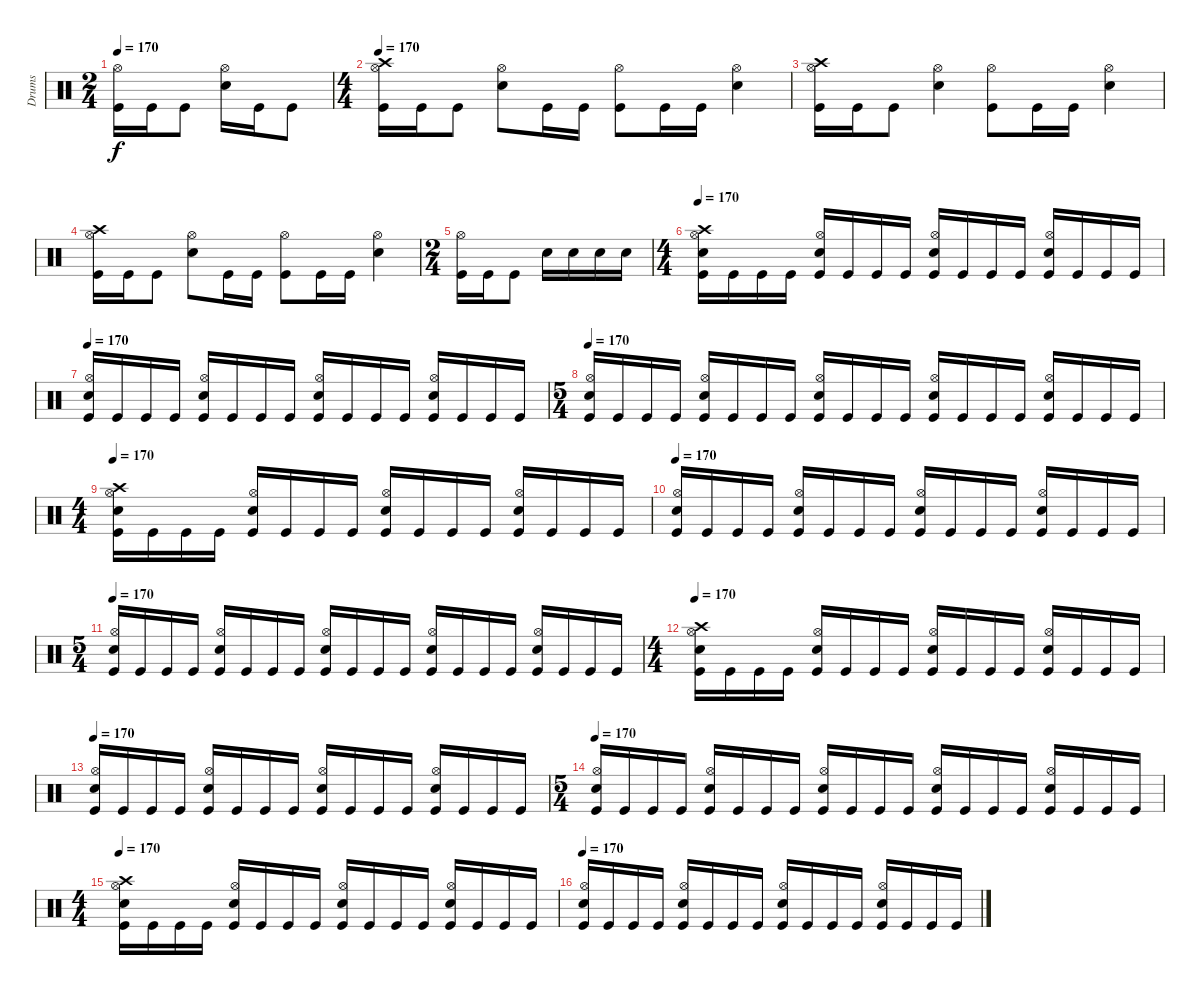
\track ("Drums" "Drums") {instrument percussion}
\staff {score}
\articulation defaults
\ts (2 4)
\tempo 170
\clef neutral
\ks c
("Kick (hit)" "Hi-Hat (open)").16{dy f} "Kick (hit)".16 "Kick (hit)".8 ("Snare (hit) 2" "Hi-Hat (open)").16 "Kick (hit)".16 "Kick (hit)".8 |
\ts (4 4)
\tempo 170
("Kick (hit)" "Hi-Hat (open)" "Crash high (hit)").16 "Kick (hit)".16 "Kick (hit)".8 ("Snare (hit) 2" "Hi-Hat (open)").8 "Kick (hit)".16 "Kick (hit)".16 ("Kick (hit)" "Hi-Hat (open)").8 "Kick (hit)".16 "Kick (hit)".16 ("Snare (hit) 2" "Hi-Hat (open)").4 |
("Kick (hit)" "Hi-Hat (open)" "Crash high (hit)").16 "Kick (hit)".16 "Kick (hit)".8 ("Snare (hit) 2" "Hi-Hat (open)").4 ("Kick (hit)" "Hi-Hat (open)").8 "Kick (hit)".16 "Kick (hit)".16 ("Snare (hit) 2" "Hi-Hat (open)").4 |
("Kick (hit)" "Hi-Hat (open)" "Crash high (hit)").16 "Kick (hit)".16 "Kick (hit)".8 ("Snare (hit) 2" "Hi-Hat (open)").8 "Kick (hit)".16 "Kick (hit)".16 ("Kick (hit)" "Hi-Hat (open)").8 "Kick (hit)".16 "Kick (hit)".16 ("Snare (hit) 2" "Hi-Hat (open)").4 |
\ts (2 4)
("Kick (hit)" "Hi-Hat (open)").16 "Kick (hit)".16 "Kick (hit)".8 "Snare (hit) 2".16 "Snare (hit) 2".16 "Snare (hit) 2".16 "Snare (hit) 2".16 |
\ts (4 4)
\tempo 170
("Kick (hit)" "Snare (hit) 2" "Hi-Hat (open)" "Crash high (hit)").16 "Kick (hit)".16 "Kick (hit)".16 "Kick (hit)".16 ("Kick (hit)" "Snare (hit) 2" "Hi-Hat (open)").16 "Kick (hit)".16 "Kick (hit)".16 "Kick (hit)".16 ("Kick (hit)" "Snare (hit) 2" "Hi-Hat (open)").16 "Kick (hit)".16 "Kick (hit)".16 "Kick (hit)".16 ("Kick (hit)" "Snare (hit) 2" "Hi-Hat (open)").16 "Kick (hit)".16 "Kick (hit)".16 "Kick (hit)".16 |
\tempo 170
("Kick (hit)" "Snare (hit) 2" "Hi-Hat (open)").16 "Kick (hit)".16 "Kick (hit)".16 "Kick (hit)".16 ("Kick (hit)" "Snare (hit) 2" "Hi-Hat (open)").16 "Kick (hit)".16 "Kick (hit)".16 "Kick (hit)".16 ("Kick (hit)" "Snare (hit) 2" "Hi-Hat (open)").16 "Kick (hit)".16 "Kick (hit)".16 "Kick (hit)".16 ("Kick (hit)" "Snare (hit) 2" "Hi-Hat (open)").16 "Kick (hit)".16 "Kick (hit)".16 "Kick (hit)".16 |
\ts (5 4)
\tempo 170
("Kick (hit)" "Snare (hit) 2" "Hi-Hat (open)").16 "Kick (hit)".16 "Kick (hit)".16 "Kick (hit)".16 ("Kick (hit)" "Snare (hit) 2" "Hi-Hat (open)").16 "Kick (hit)".16 "Kick (hit)".16 "Kick (hit)".16 ("Kick (hit)" "Snare (hit) 2" "Hi-Hat (open)").16 "Kick (hit)".16 "Kick (hit)".16 "Kick (hit)".16 ("Kick (hit)" "Snare (hit) 2" "Hi-Hat (open)").16 "Kick (hit)".16 "Kick (hit)".16 "Kick (hit)".16 ("Kick (hit)" "Snare (hit) 2" "Hi-Hat (open)").16 "Kick (hit)".16 "Kick (hit)".16 "Kick (hit)".16 |
\ts (4 4)
\tempo 170
("Kick (hit)" "Snare (hit) 2" "Hi-Hat (open)" "Crash high (hit)").16 "Kick (hit)".16 "Kick (hit)".16 "Kick (hit)".16 ("Kick (hit)" "Snare (hit) 2" "Hi-Hat (open)").16 "Kick (hit)".16 "Kick (hit)".16 "Kick (hit)".16 ("Kick (hit)" "Snare (hit) 2" "Hi-Hat (open)").16 "Kick (hit)".16 "Kick (hit)".16 "Kick (hit)".16 ("Kick (hit)" "Snare (hit) 2" "Hi-Hat (open)").16 "Kick (hit)".16 "Kick (hit)".16 "Kick (hit)".16 |
\tempo 170
("Kick (hit)" "Snare (hit) 2" "Hi-Hat (open)").16 "Kick (hit)".16 "Kick (hit)".16 "Kick (hit)".16 ("Kick (hit)" "Snare (hit) 2" "Hi-Hat (open)").16 "Kick (hit)".16 "Kick (hit)".16 "Kick (hit)".16 ("Kick (hit)" "Snare (hit) 2" "Hi-Hat (open)").16 "Kick (hit)".16 "Kick (hit)".16 "Kick (hit)".16 ("Kick (hit)" "Snare (hit) 2" "Hi-Hat (open)").16 "Kick (hit)".16 "Kick (hit)".16 "Kick (hit)".16 |
\ts (5 4)
\tempo 170
("Kick (hit)" "Snare (hit) 2" "Hi-Hat (open)").16 "Kick (hit)".16 "Kick (hit)".16 "Kick (hit)".16 ("Kick (hit)" "Snare (hit) 2" "Hi-Hat (open)").16 "Kick (hit)".16 "Kick (hit)".16 "Kick (hit)".16 ("Kick (hit)" "Snare (hit) 2" "Hi-Hat (open)").16 "Kick (hit)".16 "Kick (hit)".16 "Kick (hit)".16 ("Kick (hit)" "Snare (hit) 2" "Hi-Hat (open)").16 "Kick (hit)".16 "Kick (hit)".16 "Kick (hit)".16 ("Kick (hit)" "Snare (hit) 2" "Hi-Hat (open)").16 "Kick (hit)".16 "Kick (hit)".16 "Kick (hit)".16 |
\ts (4 4)
\tempo 170
("Kick (hit)" "Snare (hit) 2" "Hi-Hat (open)" "Crash high (hit)").16 "Kick (hit)".16 "Kick (hit)".16 "Kick (hit)".16 ("Kick (hit)" "Snare (hit) 2" "Hi-Hat (open)").16 "Kick (hit)".16 "Kick (hit)".16 "Kick (hit)".16 ("Kick (hit)" "Snare (hit) 2" "Hi-Hat (open)").16 "Kick (hit)".16 "Kick (hit)".16 "Kick (hit)".16 ("Kick (hit)" "Snare (hit) 2" "Hi-Hat (open)").16 "Kick (hit)".16 "Kick (hit)".16 "Kick (hit)".16 |
\tempo 170
("Kick (hit)" "Snare (hit) 2" "Hi-Hat (open)").16 "Kick (hit)".16 "Kick (hit)".16 "Kick (hit)".16 ("Kick (hit)" "Snare (hit) 2" "Hi-Hat (open)").16 "Kick (hit)".16 "Kick (hit)".16 "Kick (hit)".16 ("Kick (hit)" "Snare (hit) 2" "Hi-Hat (open)").16 "Kick (hit)".16 "Kick (hit)".16 "Kick (hit)".16 ("Kick (hit)" "Snare (hit) 2" "Hi-Hat (open)").16 "Kick (hit)".16 "Kick (hit)".16 "Kick (hit)".16 |
\ts (5 4)
\tempo 170
("Kick (hit)" "Snare (hit) 2" "Hi-Hat (open)").16 "Kick (hit)".16 "Kick (hit)".16 "Kick (hit)".16 ("Kick (hit)" "Snare (hit) 2" "Hi-Hat (open)").16 "Kick (hit)".16 "Kick (hit)".16 "Kick (hit)".16 ("Kick (hit)" "Snare (hit) 2" "Hi-Hat (open)").16 "Kick (hit)".16 "Kick (hit)".16 "Kick (hit)".16 ("Kick (hit)" "Snare (hit) 2" "Hi-Hat (open)").16 "Kick (hit)".16 "Kick (hit)".16 "Kick (hit)".16 ("Kick (hit)" "Snare (hit) 2" "Hi-Hat (open)").16 "Kick (hit)".16 "Kick (hit)".16 "Kick (hit)".16 |
\ts (4 4)
\tempo 170
("Kick (hit)" "Snare (hit) 2" "Hi-Hat (open)" "Crash high (hit)").16 "Kick (hit)".16 "Kick (hit)".16 "Kick (hit)".16 ("Kick (hit)" "Snare (hit) 2" "Hi-Hat (open)").16 "Kick (hit)".16 "Kick (hit)".16 "Kick (hit)".16 ("Kick (hit)" "Snare (hit) 2" "Hi-Hat (open)").16 "Kick (hit)".16 "Kick (hit)".16 "Kick (hit)".16 ("Kick (hit)" "Snare (hit) 2" "Hi-Hat (open)").16 "Kick (hit)".16 "Kick (hit)".16 "Kick (hit)".16 |
\tempo 170
("Kick (hit)" "Snare (hit) 2" "Hi-Hat (open)").16 "Kick (hit)".16 "Kick (hit)".16 "Kick (hit)".16 ("Kick (hit)" "Snare (hit) 2" "Hi-Hat (open)").16 "Kick (hit)".16 "Kick (hit)".16 "Kick (hit)".16 ("Kick (hit)" "Snare (hit) 2" "Hi-Hat (open)").16 "Kick (hit)".16 "Kick (hit)".16 "Kick (hit)".16 ("Kick (hit)" "Snare (hit) 2" "Hi-Hat (open)").16 "Kick (hit)".16 "Kick (hit)".16 "Kick (hit)".16
